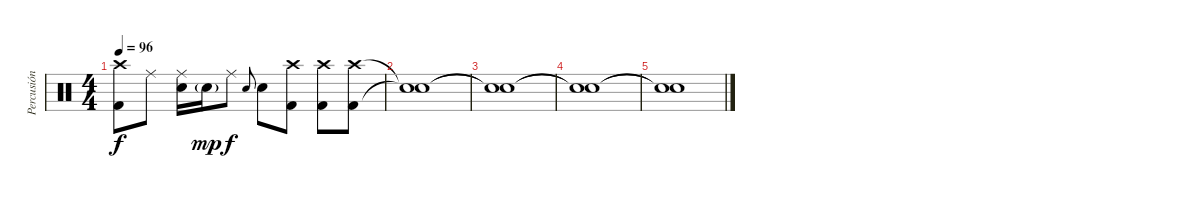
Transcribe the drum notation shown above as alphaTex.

\track ("Percusión" "Percusión") {instrument percussion}
\staff {score}
\articulation defaults
\ts (4 4)
\tempo 96
\clef neutral
\ks c
("Crash high (hit)" "Kick (hit) 2").8{dy f} "Ride (middle)".8 ("Ride (middle)" "Snare (hit) 2").16 "Snare (hit) 2"{g}.16{dy mp} "Ride (middle)".8{dy f} "Snare (hit) 2".8{gr onbeat} "Snare (hit) 2".8 ("Crash high (hit)" "Kick (hit) 2").8 ("Crash high (hit)" "Kick (hit) 2").8 ("Crash high (hit)" "Kick (hit) 2").8 |
("Snare (hit)"{t} "Snare (hit)"{t}).1 |
("Snare (hit)"{t} "Snare (hit)"{t}).1 |
("Snare (hit)"{t} "Snare (hit)"{t}).1 |
("Snare (hit)"{t} "Snare (hit)"{t}).1
